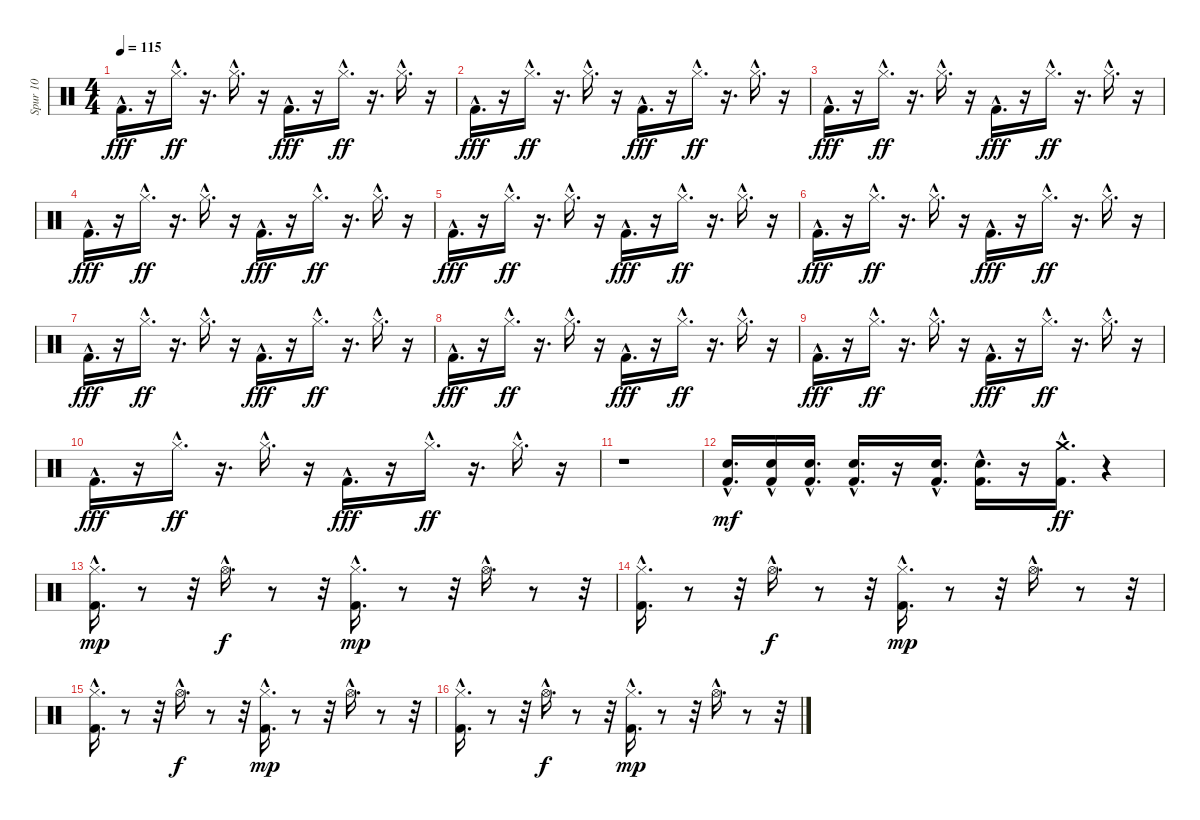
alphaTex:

\track ("Spur 10" "Spur 10") {instrument percussion}
\staff {score}
\articulation defaults
\ts (4 4)
\tempo 115
\clef neutral
\ks c "Kick (hit) 2"{hac}.16{d dy fff}
r.16 "Hi-Hat (closed)"{hac}.16{d dy ff} r.16{d} "Hi-Hat (closed)"{hac}.16{d} r.16 "Kick (hit) 2"{hac}.16{d dy fff} r.16 "Hi-Hat (closed)"{hac}.16{d dy ff} r.16{d} "Hi-Hat (closed)"{hac}.16{d} r.16 |
"Kick (hit) 2"{hac}.16{d dy fff} r.16 "Hi-Hat (closed)"{hac}.16{d dy ff} r.16{d} "Hi-Hat (closed)"{hac}.16{d} r.16 "Kick (hit) 2"{hac}.16{d dy fff} r.16 "Hi-Hat (closed)"{hac}.16{d dy ff} r.16{d} "Hi-Hat (closed)"{hac}.16{d} r.16 |
"Kick (hit) 2"{hac}.16{d dy fff} r.16 "Hi-Hat (closed)"{hac}.16{d dy ff} r.16{d} "Hi-Hat (closed)"{hac}.16{d} r.16 "Kick (hit) 2"{hac}.16{d dy fff} r.16 "Hi-Hat (closed)"{hac}.16{d dy ff} r.16{d} "Hi-Hat (closed)"{hac}.16{d} r.16 |
"Kick (hit) 2"{hac}.16{d dy fff} r.16 "Hi-Hat (closed)"{hac}.16{d dy ff} r.16{d} "Hi-Hat (closed)"{hac}.16{d} r.16 "Kick (hit) 2"{hac}.16{d dy fff} r.16 "Hi-Hat (closed)"{hac}.16{d dy ff} r.16{d} "Hi-Hat (closed)"{hac}.16{d} r.16 |
"Kick (hit) 2"{hac}.16{d dy fff} r.16 "Hi-Hat (closed)"{hac}.16{d dy ff} r.16{d} "Hi-Hat (closed)"{hac}.16{d} r.16 "Kick (hit) 2"{hac}.16{d dy fff} r.16 "Hi-Hat (closed)"{hac}.16{d dy ff} r.16{d} "Hi-Hat (closed)"{hac}.16{d} r.16 |
"Kick (hit) 2"{hac}.16{d dy fff} r.16 "Hi-Hat (closed)"{hac}.16{d dy ff} r.16{d} "Hi-Hat (closed)"{hac}.16{d} r.16 "Kick (hit) 2"{hac}.16{d dy fff} r.16 "Hi-Hat (closed)"{hac}.16{d dy ff} r.16{d} "Hi-Hat (closed)"{hac}.16{d} r.16 |
"Kick (hit) 2"{hac}.16{d dy fff} r.16 "Hi-Hat (closed)"{hac}.16{d dy ff} r.16{d} "Hi-Hat (closed)"{hac}.16{d} r.16 "Kick (hit) 2"{hac}.16{d dy fff} r.16 "Hi-Hat (closed)"{hac}.16{d dy ff} r.16{d} "Hi-Hat (closed)"{hac}.16{d} r.16 |
"Kick (hit) 2"{hac}.16{d dy fff} r.16 "Hi-Hat (closed)"{hac}.16{d dy ff} r.16{d} "Hi-Hat (closed)"{hac}.16{d} r.16 "Kick (hit) 2"{hac}.16{d dy fff} r.16 "Hi-Hat (closed)"{hac}.16{d dy ff} r.16{d} "Hi-Hat (closed)"{hac}.16{d} r.16 |
"Kick (hit) 2"{hac}.16{d dy fff} r.16 "Hi-Hat (closed)"{hac}.16{d dy ff} r.16{d} "Hi-Hat (closed)"{hac}.16{d} r.16 "Kick (hit) 2"{hac}.16{d dy fff} r.16 "Hi-Hat (closed)"{hac}.16{d dy ff} r.16{d} "Hi-Hat (closed)"{hac}.16{d} r.16 |
"Kick (hit) 2"{hac}.16{d dy fff} r.16 "Hi-Hat (closed)"{hac}.16{d dy ff} r.16{d} "Hi-Hat (closed)"{hac}.16{d} r.16 "Kick (hit) 2"{hac}.16{d dy fff} r.16 "Hi-Hat (closed)"{hac}.16{d dy ff} r.16{d} "Hi-Hat (closed)"{hac}.16{d} r.16 |
r.1 |
("Kick (hit) 2"{hac} "Snare (hit) 2"{hac}).16{d dy mf} ("Kick (hit) 2"{hac} "Snare (hit) 2"{hac}).16 ("Kick (hit) 2"{hac} "Snare (hit) 2"{hac}).16{d} ("Kick (hit) 2"{hac} "Snare (hit) 2"{hac}).16{d} r.16 ("Kick (hit) 2"{hac} "Snare (hit) 2"{hac}).16{d} ("Kick (hit) 2"{hac} "Snare (hit) 2"{hac}).16{d} r.16 ("Crash medium (hit)" "Kick (hit) 2"{hac}).16{d dy ff} r.4 |
("Kick (hit) 2"{hac} "Hi-Hat (closed)"{hac}).16{d dy mp} r.8 r.32 "Hi-Hat (open)"{hac}.16{d dy f} r.8 r.32 ("Kick (hit) 2"{hac} "Hi-Hat (closed)"{hac}).16{d dy mp} r.8 r.32 "Hi-Hat (open)"{hac}.16{d} r.8 r.32 |
("Kick (hit) 2"{hac} "Hi-Hat (closed)"{hac}).16{d} r.8 r.32 "Hi-Hat (open)"{hac}.16{d dy f} r.8 r.32 ("Kick (hit) 2"{hac} "Hi-Hat (closed)"{hac}).16{d dy mp} r.8 r.32 "Hi-Hat (open)"{hac}.16{d} r.8 r.32 |
("Kick (hit) 2"{hac} "Hi-Hat (closed)"{hac}).16{d} r.8 r.32 "Hi-Hat (open)"{hac}.16{d dy f} r.8 r.32 ("Kick (hit) 2"{hac} "Hi-Hat (closed)"{hac}).16{d dy mp} r.8 r.32 "Hi-Hat (open)"{hac}.16{d} r.8 r.32 |
("Kick (hit) 2"{hac} "Hi-Hat (closed)"{hac}).16{d} r.8 r.32 "Hi-Hat (open)"{hac}.16{d dy f} r.8 r.32 ("Kick (hit) 2"{hac} "Hi-Hat (closed)"{hac}).16{d dy mp} r.8 r.32 "Hi-Hat (open)"{hac}.16{d} r.8 r.32
